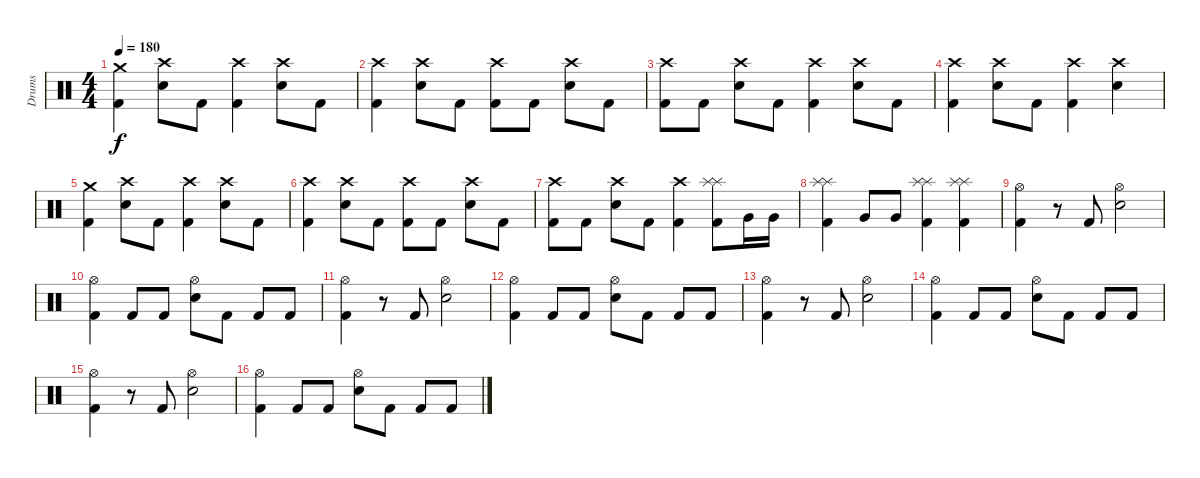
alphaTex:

\track ("Drums" "Drums") {instrument percussion}
\staff {score}
\articulation defaults
\ts (4 4)
\tempo 180
\clef neutral
\ks c
("Crash medium (hit)" "Kick (hit) 2").4{dy f} ("Crash high (hit)" "Snare (hit) 2").8 "Kick (hit) 2".8 ("Crash high (hit)" "Kick (hit) 2").4 ("Crash high (hit)" "Snare (hit) 2").8 "Kick (hit) 2".8 |
("Crash high (hit)" "Kick (hit) 2").4 ("Crash high (hit)" "Snare (hit) 2").8 "Kick (hit) 2".8 ("Crash high (hit)" "Kick (hit) 2").8 "Kick (hit) 2".8 ("Crash high (hit)" "Snare (hit) 2").8 "Kick (hit) 2".8 |
("Crash high (hit)" "Kick (hit) 2").8 "Kick (hit) 2".8 ("Crash high (hit)" "Snare (hit) 2").8 "Kick (hit) 2".8 ("Crash high (hit)" "Kick (hit) 2").4 ("Crash high (hit)" "Snare (hit) 2").8 "Kick (hit) 2".8 |
("Crash high (hit)" "Kick (hit) 2").4 ("Crash high (hit)" "Snare (hit) 2").8 "Kick (hit) 2".8 ("Crash high (hit)" "Kick (hit) 2").4 ("Crash high (hit)" "Snare (hit) 2").4 |
("Crash medium (hit)" "Kick (hit) 2").4 ("Crash high (hit)" "Snare (hit) 2").8 "Kick (hit) 2".8 ("Crash high (hit)" "Kick (hit) 2").4 ("Crash high (hit)" "Snare (hit) 2").8 "Kick (hit) 2".8 |
("Crash high (hit)" "Kick (hit) 2").4 ("Crash high (hit)" "Snare (hit) 2").8 "Kick (hit) 2".8 ("Crash high (hit)" "Kick (hit) 2").8 "Kick (hit) 2".8 ("Crash high (hit)" "Snare (hit) 2").8 "Kick (hit) 2".8 |
("Crash high (hit)" "Kick (hit) 2").8 "Kick (hit) 2".8 ("Crash high (hit)" "Snare (hit) 2").8 "Kick (hit) 2".8 ("Crash high (hit)" "Kick (hit) 2").4 ("Splash (hit)" "Splash (hit)" "Kick (hit) 2").8 "Very Low Tom (hit)".16 "Very Low Tom (hit)".16 |
("Splash (hit)" "Splash (hit)" "Kick (hit) 2").4 "Very Low Tom (hit)".8 "Very Low Tom (hit)".8 ("Splash (hit)" "Splash (hit)" "Kick (hit) 2").4 ("Splash (hit)" "Splash (hit)" "Kick (hit) 2").4 |
("Hi-Hat (open)" "Kick (hit) 2").4 r.8 "Kick (hit) 2".8 ("Hi-Hat (open)" "Snare (hit) 2").2 |
("Hi-Hat (open)" "Kick (hit) 2").4 "Kick (hit) 2".8 "Kick (hit) 2".8 ("Hi-Hat (open)" "Snare (hit) 2").8 "Kick (hit) 2".8 "Kick (hit) 2".8 "Kick (hit) 2".8 |
("Hi-Hat (open)" "Kick (hit) 2").4 r.8 "Kick (hit) 2".8 ("Hi-Hat (open)" "Snare (hit) 2").2 |
("Hi-Hat (open)" "Kick (hit) 2").4 "Kick (hit) 2".8 "Kick (hit) 2".8 ("Hi-Hat (open)" "Snare (hit) 2").8 "Kick (hit) 2".8 "Kick (hit) 2".8 "Kick (hit) 2".8 |
("Hi-Hat (open)" "Kick (hit) 2").4 r.8 "Kick (hit) 2".8 ("Hi-Hat (open)" "Snare (hit) 2").2 |
("Hi-Hat (open)" "Kick (hit) 2").4 "Kick (hit) 2".8 "Kick (hit) 2".8 ("Hi-Hat (open)" "Snare (hit) 2").8 "Kick (hit) 2".8 "Kick (hit) 2".8 "Kick (hit) 2".8 |
("Hi-Hat (open)" "Kick (hit) 2").4 r.8 "Kick (hit) 2".8 ("Hi-Hat (open)" "Snare (hit) 2").2 |
("Hi-Hat (open)" "Kick (hit) 2").4 "Kick (hit) 2".8 "Kick (hit) 2".8 ("Hi-Hat (open)" "Snare (hit) 2").8 "Kick (hit) 2".8 "Kick (hit) 2".8 "Kick (hit) 2".8
